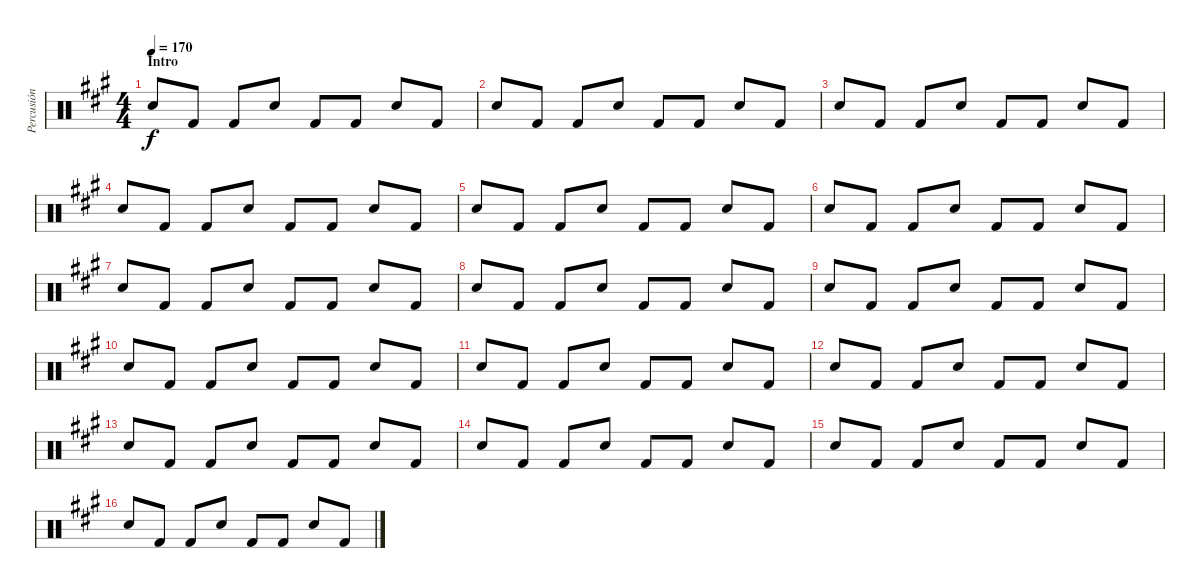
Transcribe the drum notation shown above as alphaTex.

\track ("Percusión" "Percusión") {instrument percussion}
\staff {score}
\articulation defaults
\ts (4 4)
\section ("" "Intro")
\tempo 170
\clef neutral
\ks a "Snare (hit) 2".8{dy f} "Kick (hit) 2".8 "Kick (hit) 2".8 "Snare (hit) 2".8 "Kick (hit) 2".8 "Kick (hit) 2".8 "Snare (hit) 2".8 "Kick (hit) 2".8
|
"Snare (hit) 2".8 "Kick (hit) 2".8 "Kick (hit) 2".8 "Snare (hit) 2".8 "Kick (hit) 2".8 "Kick (hit) 2".8 "Snare (hit) 2".8 "Kick (hit) 2".8 |
"Snare (hit) 2".8 "Kick (hit) 2".8 "Kick (hit) 2".8 "Snare (hit) 2".8 "Kick (hit) 2".8 "Kick (hit) 2".8 "Snare (hit) 2".8 "Kick (hit) 2".8 |
"Snare (hit) 2".8 "Kick (hit) 2".8 "Kick (hit) 2".8 "Snare (hit) 2".8 "Kick (hit) 2".8 "Kick (hit) 2".8 "Snare (hit) 2".8 "Kick (hit) 2".8 |
"Snare (hit) 2".8 "Kick (hit) 2".8 "Kick (hit) 2".8 "Snare (hit) 2".8 "Kick (hit) 2".8 "Kick (hit) 2".8 "Snare (hit) 2".8 "Kick (hit) 2".8 |
"Snare (hit) 2".8 "Kick (hit) 2".8 "Kick (hit) 2".8 "Snare (hit) 2".8 "Kick (hit) 2".8 "Kick (hit) 2".8 "Snare (hit) 2".8 "Kick (hit) 2".8 |
"Snare (hit) 2".8 "Kick (hit) 2".8 "Kick (hit) 2".8 "Snare (hit) 2".8 "Kick (hit) 2".8 "Kick (hit) 2".8 "Snare (hit) 2".8 "Kick (hit) 2".8 |
"Snare (hit) 2".8 "Kick (hit) 2".8 "Kick (hit) 2".8 "Snare (hit) 2".8 "Kick (hit) 2".8 "Kick (hit) 2".8 "Snare (hit) 2".8 "Kick (hit) 2".8 |
"Snare (hit) 2".8 "Kick (hit) 2".8 "Kick (hit) 2".8 "Snare (hit) 2".8 "Kick (hit) 2".8 "Kick (hit) 2".8 "Snare (hit) 2".8 "Kick (hit) 2".8 |
"Snare (hit) 2".8 "Kick (hit) 2".8 "Kick (hit) 2".8 "Snare (hit) 2".8 "Kick (hit) 2".8 "Kick (hit) 2".8 "Snare (hit) 2".8 "Kick (hit) 2".8 |
"Snare (hit) 2".8 "Kick (hit) 2".8 "Kick (hit) 2".8 "Snare (hit) 2".8 "Kick (hit) 2".8 "Kick (hit) 2".8 "Snare (hit) 2".8 "Kick (hit) 2".8 |
"Snare (hit) 2".8 "Kick (hit) 2".8 "Kick (hit) 2".8 "Snare (hit) 2".8 "Kick (hit) 2".8 "Kick (hit) 2".8 "Snare (hit) 2".8 "Kick (hit) 2".8 |
"Snare (hit) 2".8 "Kick (hit) 2".8 "Kick (hit) 2".8 "Snare (hit) 2".8 "Kick (hit) 2".8 "Kick (hit) 2".8 "Snare (hit) 2".8 "Kick (hit) 2".8 |
"Snare (hit) 2".8 "Kick (hit) 2".8 "Kick (hit) 2".8 "Snare (hit) 2".8 "Kick (hit) 2".8 "Kick (hit) 2".8 "Snare (hit) 2".8 "Kick (hit) 2".8 |
"Snare (hit) 2".8 "Kick (hit) 2".8 "Kick (hit) 2".8 "Snare (hit) 2".8 "Kick (hit) 2".8 "Kick (hit) 2".8 "Snare (hit) 2".8 "Kick (hit) 2".8 |
"Snare (hit) 2".8 "Kick (hit) 2".8 "Kick (hit) 2".8 "Snare (hit) 2".8 "Kick (hit) 2".8 "Kick (hit) 2".8 "Snare (hit) 2".8 "Kick (hit) 2".8
